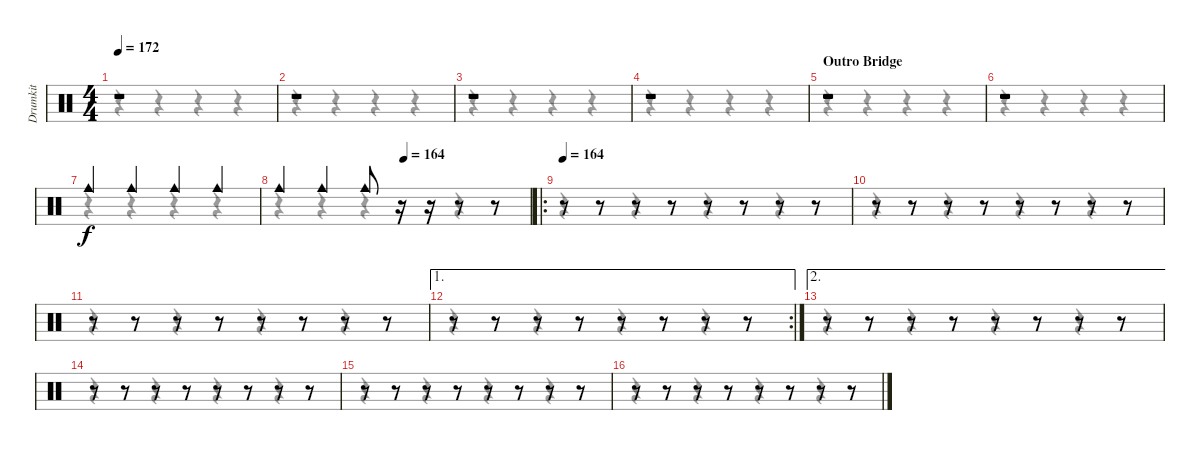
\track ("Drumkit" "Drumkit") {instrument percussion}
\staff {score}
\articulation defaults
\voice
\ts (4 4)
\tempo 172
\clef neutral
\ks c
r.1{dy f} |
r.1 |
r.1 |
r.1 |
\section ("" "Outro Bridge")
r.1 |
r.1 |
"Cowbell medium (hit)".4 "Cowbell medium (hit)".4 "Cowbell medium (hit)".4 "Cowbell medium (hit)".4 |
\tempo (164 0.5)
"Cowbell medium (hit)".4 "Cowbell medium (hit)".4 "Cowbell medium (hit)".8 r.16 r.16 r.8 r.8 |
\ro
\tempo 164
r.8 r.8 r.8 r.8 r.8 r.8 r.8 r.8 |
r.8 r.8 r.8 r.8 r.8 r.8 r.8 r.8 |
r.8 r.8 r.8 r.8 r.8 r.8 r.8 r.8 |
\ae 1
\rc 2
r.8 r.8 r.8 r.8 r.8 r.8 r.8 r.8 |
\ae 2
r.8 r.8 r.8 r.8 r.8 r.8 r.8 r.8 |
r.8 r.8 r.8 r.8 r.8 r.8 r.8 r.8 |
r.8 r.8 r.8 r.8 r.8 r.8 r.8 r.8 |
r.8 r.8 r.8 r.8 r.8 r.8 r.8 r.8
\voice
\clef neutral
\ottava regular
\simile none
\ks c
r.4{dy f} r.4 r.4 r.4 |
r.4 r.4 r.4 r.4 |
r.4 r.4 r.4 r.4 |
r.4 r.4 r.4 r.4 |
r.4 r.4 r.4 r.4 |
r.4 r.4 r.4 r.4 |
r.4 r.4 r.4 r.4 |
r.4 r.4 r.4 r.4 |
r.4 r.4 r.4 r.4 |
r.4 r.4 r.4 r.4 |
r.4 r.4 r.4 r.4 |
r.4 r.4 r.4 r.4 |
r.4 r.4 r.4 r.4 |
r.4 r.4 r.4 r.4 |
r.4 r.4 r.4 r.4 |
r.4 r.4 r.4 r.4
